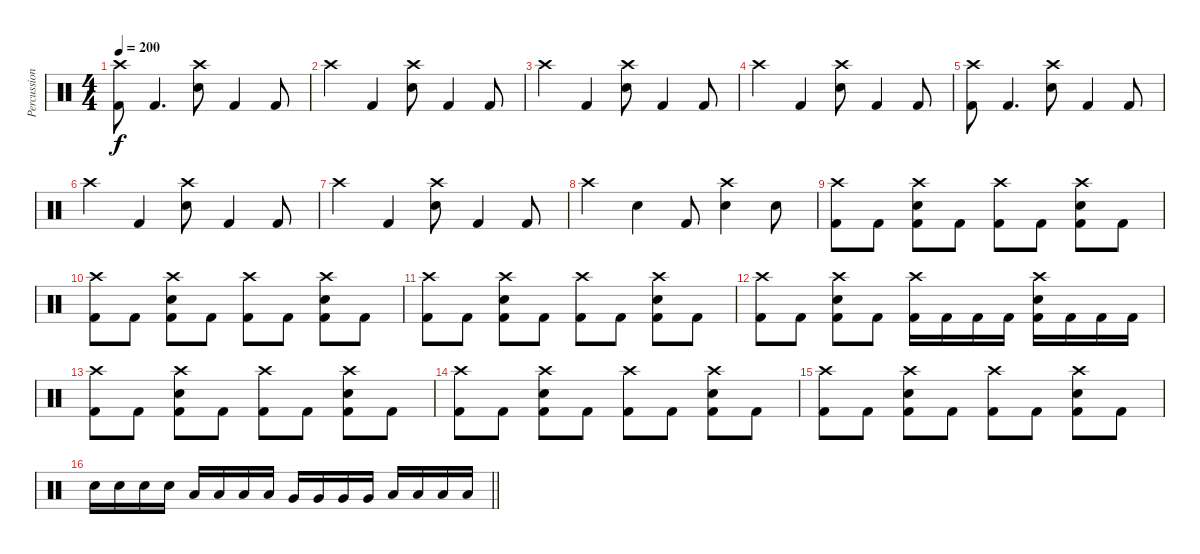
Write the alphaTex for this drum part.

\track ("Percussion" "Percussion") {instrument percussion}
\staff {score}
\articulation defaults
\ts (4 4)
\section ("" "")
\tempo 200
\clef neutral
\ks c
("Crash high (hit)" "Kick (hit) 2").8{dy f} "Kick (hit) 2".4{d} ("Crash high (hit)" "Electric Snare (hit)").8 "Kick (hit) 2".4 "Kick (hit) 2".8 |
"Crash high (hit)".4 "Kick (hit) 2".4 ("Crash high (hit)" "Electric Snare (hit)").8 "Kick (hit) 2".4 "Kick (hit) 2".8 |
"Crash high (hit)".4 "Kick (hit) 2".4 ("Crash high (hit)" "Electric Snare (hit)").8 "Kick (hit) 2".4 "Kick (hit) 2".8 |
"Crash high (hit)".4 "Kick (hit) 2".4 ("Crash high (hit)" "Electric Snare (hit)").8 "Kick (hit) 2".4 "Kick (hit) 2".8 |
("Crash high (hit)" "Kick (hit) 2").8 "Kick (hit) 2".4{d} ("Crash high (hit)" "Electric Snare (hit)").8 "Kick (hit) 2".4 "Kick (hit) 2".8 |
"Crash high (hit)".4 "Kick (hit) 2".4 ("Crash high (hit)" "Electric Snare (hit)").8 "Kick (hit) 2".4 "Kick (hit) 2".8 |
"Crash high (hit)".4 "Kick (hit) 2".4 ("Crash high (hit)" "Electric Snare (hit)").8 "Kick (hit) 2".4 "Kick (hit) 2".8 |
"Crash high (hit)".4 "Electric Snare (hit)".4 "Kick (hit) 2".8 ("Crash high (hit)" "Electric Snare (hit)").4 "Electric Snare (hit)".8 |
("Crash high (hit)" "Kick (hit) 2").8 "Kick (hit) 2".8 ("Crash high (hit)" "Electric Snare (hit)" "Kick (hit) 2").8 "Kick (hit) 2".8 ("Crash high (hit)" "Kick (hit) 2").8 "Kick (hit) 2".8 ("Crash high (hit)" "Electric Snare (hit)" "Kick (hit) 2").8 "Kick (hit) 2".8 |
("Crash high (hit)" "Kick (hit) 2").8 "Kick (hit) 2".8 ("Crash high (hit)" "Electric Snare (hit)" "Kick (hit) 2").8 "Kick (hit) 2".8 ("Crash high (hit)" "Kick (hit) 2").8 "Kick (hit) 2".8 ("Crash high (hit)" "Electric Snare (hit)" "Kick (hit) 2").8 "Kick (hit) 2".8 |
("Crash high (hit)" "Kick (hit) 2").8 "Kick (hit) 2".8 ("Crash high (hit)" "Electric Snare (hit)" "Kick (hit) 2").8 "Kick (hit) 2".8 ("Crash high (hit)" "Kick (hit) 2").8 "Kick (hit) 2".8 ("Crash high (hit)" "Electric Snare (hit)" "Kick (hit) 2").8 "Kick (hit) 2".8 |
("Crash high (hit)" "Kick (hit) 2").8 "Kick (hit) 2".8 ("Crash high (hit)" "Electric Snare (hit)" "Kick (hit) 2").8 "Kick (hit) 2".8 ("Crash high (hit)" "Kick (hit) 2").16 "Kick (hit) 2".16 "Kick (hit) 2".16 "Kick (hit) 2".16 ("Crash high (hit)" "Electric Snare (hit)" "Kick (hit) 2").16 "Kick (hit) 2".16 "Kick (hit) 2".16 "Kick (hit) 2".16 |
("Crash high (hit)" "Kick (hit) 2").8 "Kick (hit) 2".8 ("Crash high (hit)" "Electric Snare (hit)" "Kick (hit) 2").8 "Kick (hit) 2".8 ("Crash high (hit)" "Kick (hit) 2").8 "Kick (hit) 2".8 ("Crash high (hit)" "Electric Snare (hit)" "Kick (hit) 2").8 "Kick (hit) 2".8 |
("Crash high (hit)" "Kick (hit) 2").8 "Kick (hit) 2".8 ("Crash high (hit)" "Electric Snare (hit)" "Kick (hit) 2").8 "Kick (hit) 2".8 ("Crash high (hit)" "Kick (hit) 2").8 "Kick (hit) 2".8 ("Crash high (hit)" "Electric Snare (hit)" "Kick (hit) 2").8 "Kick (hit) 2".8 |
("Crash high (hit)" "Kick (hit) 2").8 "Kick (hit) 2".8 ("Crash high (hit)" "Electric Snare (hit)" "Kick (hit) 2").8 "Kick (hit) 2".8 ("Crash high (hit)" "Kick (hit) 2").8 "Kick (hit) 2".8 ("Crash high (hit)" "Electric Snare (hit)" "Kick (hit) 2").8 "Kick (hit) 2".8 |
\barLineRight lightlight "Electric Snare (hit)".16 "Electric Snare (hit)".16 "Electric Snare (hit)".16 "Electric Snare (hit)".16 "Low Tom (hit)".16 "Low Tom (hit)".16 "Low Tom (hit)".16 "Low Tom (hit)".16 "Very Low Tom (hit)".16 "Very Low Tom (hit)".16 "Very Low Tom (hit)".16 "Very Low Tom (hit)".16 "Low Floor Tom (hit)".16 "Low Floor Tom (hit)".16 "Low Floor Tom (hit)".16 "Low Floor Tom (hit)".16
